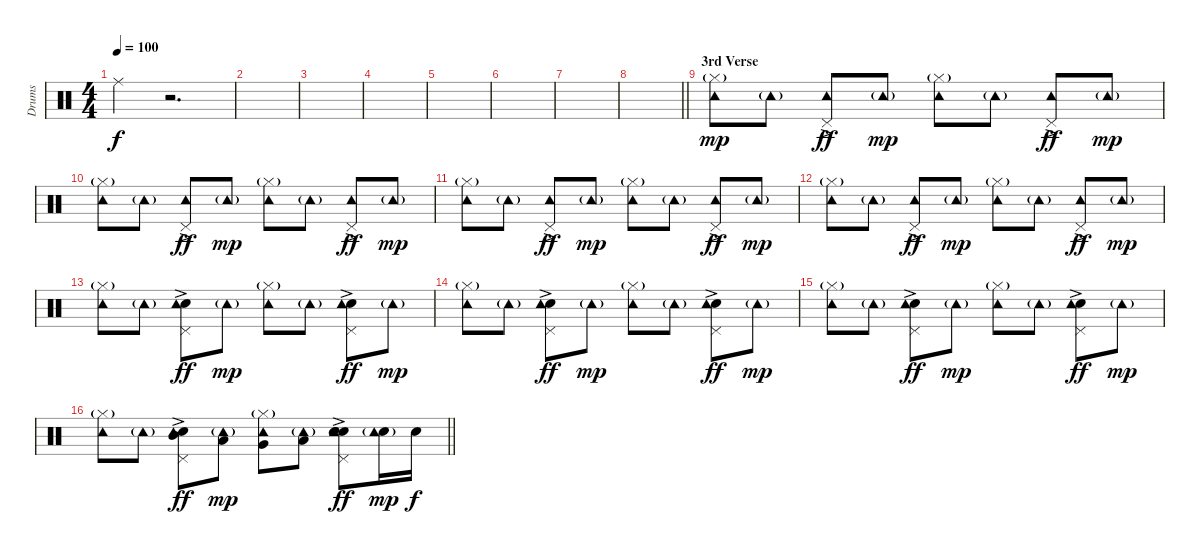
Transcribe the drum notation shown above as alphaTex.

\track ("Drums" "Drums") {instrument percussion}
\staff {score}
\articulation defaults
\ts (4 4)
\tempo 100
\clef neutral
\ks c "Ride (middle)".4{dy f}
r.2{d} |
|
|
|
|
|
|
\barLineRight lightlight
|
\section ("" "3rd Verse")
("Hi-Hat (closed)"{g} "Tambourine (hit)").8{dy mp} "Tambourine (hit)"{g}.8 ("Pedal Hi-Hat (hit)"{ac} "Tambourine (hit)").8{dy ff} "Tambourine (hit)"{g}.8{dy mp} ("Hi-Hat (closed)"{g} "Tambourine (hit)").8 "Tambourine (hit)"{g}.8 ("Pedal Hi-Hat (hit)"{ac} "Tambourine (hit)").8{dy ff} "Tambourine (hit)"{g}.8{dy mp} |
("Hi-Hat (closed)"{g} "Tambourine (hit)").8 "Tambourine (hit)"{g}.8 ("Pedal Hi-Hat (hit)"{ac} "Tambourine (hit)").8{dy ff} "Tambourine (hit)"{g}.8{dy mp} ("Hi-Hat (closed)"{g} "Tambourine (hit)").8 "Tambourine (hit)"{g}.8 ("Pedal Hi-Hat (hit)"{ac} "Tambourine (hit)").8{dy ff} "Tambourine (hit)"{g}.8{dy mp} |
("Hi-Hat (closed)"{g} "Tambourine (hit)").8 "Tambourine (hit)"{g}.8 ("Pedal Hi-Hat (hit)"{ac} "Tambourine (hit)").8{dy ff} "Tambourine (hit)"{g}.8{dy mp} ("Hi-Hat (closed)"{g} "Tambourine (hit)").8 "Tambourine (hit)"{g}.8 ("Pedal Hi-Hat (hit)"{ac} "Tambourine (hit)").8{dy ff} "Tambourine (hit)"{g}.8{dy mp} |
("Hi-Hat (closed)"{g} "Tambourine (hit)").8 "Tambourine (hit)"{g}.8 ("Pedal Hi-Hat (hit)"{ac} "Tambourine (hit)").8{dy ff} "Tambourine (hit)"{g}.8{dy mp} ("Hi-Hat (closed)"{g} "Tambourine (hit)").8 "Tambourine (hit)"{g}.8 ("Pedal Hi-Hat (hit)"{ac} "Tambourine (hit)").8{dy ff} "Tambourine (hit)"{g}.8{dy mp} |
("Hi-Hat (closed)"{g} "Tambourine (hit)").8 "Tambourine (hit)"{g}.8 ("Hand Clap (hit)" "Pedal Hi-Hat (hit)"{ac} "Tambourine (hit)").8{dy ff} "Tambourine (hit)"{g}.8{dy mp} ("Hi-Hat (closed)"{g} "Tambourine (hit)").8 "Tambourine (hit)"{g}.8 ("Hand Clap (hit)" "Pedal Hi-Hat (hit)"{ac} "Tambourine (hit)").8{dy ff} "Tambourine (hit)"{g}.8{dy mp} |
("Hi-Hat (closed)"{g} "Tambourine (hit)").8 "Tambourine (hit)"{g}.8 ("Hand Clap (hit)" "Pedal Hi-Hat (hit)"{ac} "Tambourine (hit)").8{dy ff} "Tambourine (hit)"{g}.8{dy mp} ("Hi-Hat (closed)"{g} "Tambourine (hit)").8 "Tambourine (hit)"{g}.8 ("Hand Clap (hit)" "Pedal Hi-Hat (hit)"{ac} "Tambourine (hit)").8{dy ff} "Tambourine (hit)"{g}.8{dy mp} |
("Hi-Hat (closed)"{g} "Tambourine (hit)").8 "Tambourine (hit)"{g}.8 ("Hand Clap (hit)" "Pedal Hi-Hat (hit)"{ac} "Tambourine (hit)").8{dy ff} "Tambourine (hit)"{g}.8{dy mp} ("Hi-Hat (closed)"{g} "Tambourine (hit)").8 "Tambourine (hit)"{g}.8 ("Hand Clap (hit)" "Pedal Hi-Hat (hit)"{ac} "Tambourine (hit)").8{dy ff} "Tambourine (hit)"{g}.8{dy mp} |
\barLineRight lightlight
("Hi-Hat (closed)"{g} "Tambourine (hit)").8 "Tambourine (hit)"{g}.8 ("Mid Tom (hit)" "Hand Clap (hit)" "Pedal Hi-Hat (hit)"{ac} "Tambourine (hit)").8{dy ff} ("Low Tom (hit)" "Tambourine (hit)"{g}).8{dy mp} ("Very Low Tom (hit)" "Hi-Hat (closed)"{g} "Tambourine (hit)").8 ("Low Floor Tom (hit)" "Tambourine (hit)"{g}).8 ("Electric Snare (hit)"{ac} "Snare (hit) 2" "Hand Clap (hit)" "Pedal Hi-Hat (hit)"{ac} "Tambourine (hit)").8{dy ff} ("Snare (hit) 2" "Tambourine (hit)"{g}).16{dy mp} "Snare (hit) 2".16{dy f}
